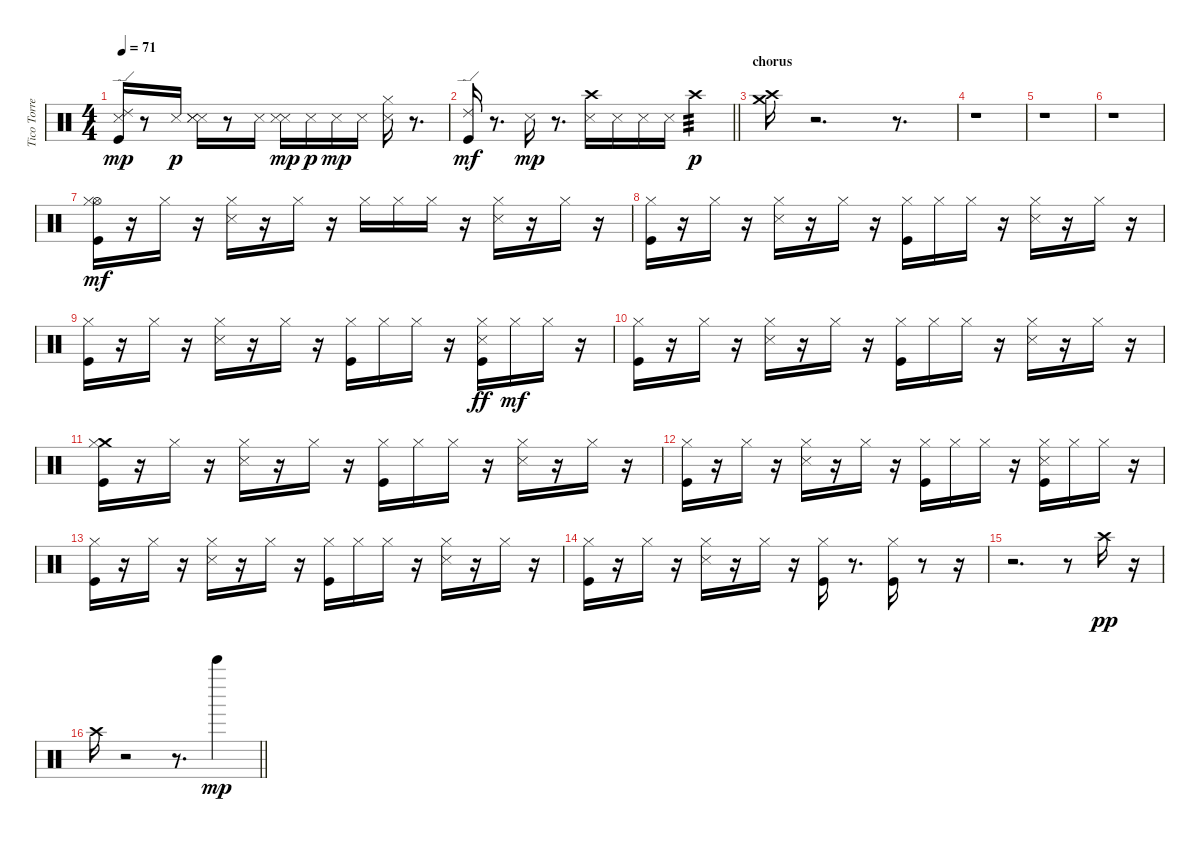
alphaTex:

\track ("Tico Torres" "Tico Torre") {instrument percussion}
\staff {score}
\articulation defaults
\ts (4 4)
\tempo 71
\clef neutral
\ks c
("Kick (hit)" "Snare (side stick) 3" "Ride (edge) 2").16{dy mp} r.8 "Snare (side stick) 3".16{dy p} ("Snare (side stick) 3" "Snare (side stick) 3" "Snare (side stick) 3").16 r.8 "Snare (side stick) 3".16 ("Snare (side stick) 3" "Snare (side stick) 3").16{dy mp} "Snare (side stick) 3".16{dy p} "Snare (side stick) 3".16{dy mp} "Snare (side stick) 3".16 ("Hi-Hat (closed)" "Snare (side stick) 3").16 r.8{d} |
\barLineRight lightlight
("Kick (hit)" "Ride (edge) 2").16{dy mf} r.8{d} "Snare (side stick) 3".16{dy mp} r.8{d} ("Crash high (hit)" "Snare (side stick) 3").16 "Snare (side stick) 3".16 "Snare (side stick) 3".16 "Snare (side stick) 3".16 "Crash high (hit)".4{tp 3 dy p} |
\section ("" "chorus")
("Crash high (hit)" "Crash medium (hit)").16 r.2{d} r.8{d} |
r.1 |
r.1 |
r.1 |
("Hi-Hat (open)" "Kick (hit)" "Hi-Hat (closed)").16{dy mf} r.16 "Hi-Hat (closed)".16 r.16 ("Snare (side stick) 3" "Hi-Hat (closed)").16 r.16 "Hi-Hat (closed)".16 r.16 "Hi-Hat (closed)".16 "Hi-Hat (closed)".16 "Hi-Hat (closed)".16 r.16 ("Snare (side stick) 3" "Hi-Hat (closed)").16 r.16 "Hi-Hat (closed)".16 r.16 |
("Kick (hit)" "Hi-Hat (closed)").16 r.16 "Hi-Hat (closed)".16 r.16 ("Snare (side stick) 3" "Hi-Hat (closed)").16 r.16 "Hi-Hat (closed)".16 r.16 ("Kick (hit)" "Hi-Hat (closed)").16 "Hi-Hat (closed)".16 "Hi-Hat (closed)".16 r.16 ("Snare (side stick) 3" "Hi-Hat (closed)").16 r.16 "Hi-Hat (closed)".16 r.16 |
("Kick (hit)" "Hi-Hat (closed)").16 r.16 "Hi-Hat (closed)".16 r.16 ("Snare (side stick) 3" "Hi-Hat (closed)").16 r.16 "Hi-Hat (closed)".16 r.16 ("Kick (hit)" "Hi-Hat (closed)").16 "Hi-Hat (closed)".16 "Hi-Hat (closed)".16 r.16 ("Kick (hit)" "Hi-Hat (closed)" "Snare (side stick) 3").16{dy ff} "Hi-Hat (closed)".16{dy mf} "Hi-Hat (closed)".16 r.16 |
("Kick (hit)" "Hi-Hat (closed)").16 r.16 "Hi-Hat (closed)".16 r.16 ("Snare (side stick) 3" "Hi-Hat (closed)").16 r.16 "Hi-Hat (closed)".16 r.16 ("Kick (hit)" "Hi-Hat (closed)").16 "Hi-Hat (closed)".16 "Hi-Hat (closed)".16 r.16 ("Snare (side stick) 3" "Hi-Hat (closed)").16 r.16 "Hi-Hat (closed)".16 r.16 |
("Crash medium (hit)" "Kick (hit)" "Hi-Hat (closed)").16 r.16 "Hi-Hat (closed)".16 r.16 ("Snare (side stick) 3" "Hi-Hat (closed)").16 r.16 "Hi-Hat (closed)".16 r.16 ("Kick (hit)" "Hi-Hat (closed)").16 "Hi-Hat (closed)".16 "Hi-Hat (closed)".16 r.16 ("Snare (side stick) 3" "Hi-Hat (closed)").16 r.16 "Hi-Hat (closed)".16 r.16 |
("Kick (hit)" "Hi-Hat (closed)").16 r.16 "Hi-Hat (closed)".16 r.16 ("Snare (side stick) 3" "Hi-Hat (closed)").16 r.16 "Hi-Hat (closed)".16 r.16 ("Kick (hit)" "Hi-Hat (closed)").16 "Hi-Hat (closed)".16 "Hi-Hat (closed)".16 r.16 ("Kick (hit)" "Hi-Hat (closed)" "Snare (side stick) 3").16 "Hi-Hat (closed)".16 "Hi-Hat (closed)".16 r.16 |
("Kick (hit)" "Hi-Hat (closed)").16 r.16 "Hi-Hat (closed)".16 r.16 ("Snare (side stick) 3" "Hi-Hat (closed)").16 r.16 "Hi-Hat (closed)".16 r.16 ("Kick (hit)" "Hi-Hat (closed)").16 "Hi-Hat (closed)".16 "Hi-Hat (closed)".16 r.16 ("Snare (side stick) 3" "Hi-Hat (closed)").16 r.16 "Hi-Hat (closed)".16 r.16 |
("Kick (hit)" "Hi-Hat (closed)").16 r.16 "Hi-Hat (closed)".16 r.16 ("Snare (side stick) 3" "Hi-Hat (closed)").16 r.16 "Hi-Hat (closed)".16 r.16 ("Kick (hit)" "Hi-Hat (closed)").16 r.8{d} ("Kick (hit)" "Hi-Hat (closed)").16 r.8 r.16 |
r.2{d} r.8 "Crash high (hit)".16{dy pp} r.16 |
\barLineRight lightlight "Crash high (hit)".16
r.2 r.8{d} "Bell Tree (hit)".4{dy mp}
